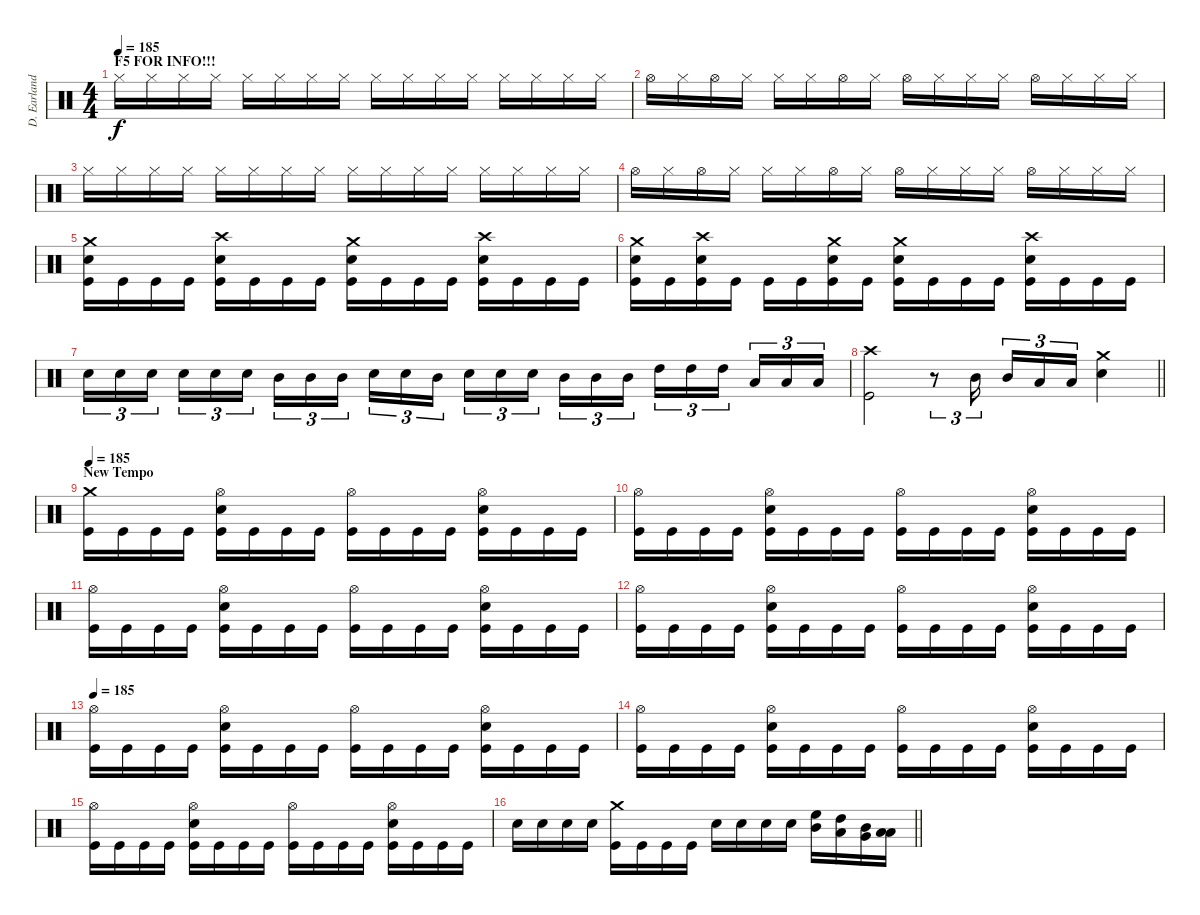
\track ("D. Earlanddson" "D. Earland") {instrument percussion}
\staff {score}
\articulation defaults
\ts (4 4)
\section ("" "F5 FOR INFO!!!")
\tempo 185
\tempo 145
\tempo 185
\clef neutral
\ks c "Hi-Hat (closed)".16{dy f} "Hi-Hat (closed)".16 "Hi-Hat (closed)".16 "Hi-Hat (closed)".16 "Hi-Hat (closed)".16 "Hi-Hat (closed)".16 "Hi-Hat (closed)".16 "Hi-Hat (closed)".16 "Hi-Hat (closed)".16 "Hi-Hat (closed)".16 "Hi-Hat (closed)".16 "Hi-Hat (closed)".16 "Hi-Hat (closed)".16 "Hi-Hat (closed)".16 "Hi-Hat (closed)".16 "Hi-Hat (closed)".16
|
"Hi-Hat (open)".16 "Hi-Hat (closed)".16 "Hi-Hat (open)".16 "Hi-Hat (closed)".16 "Hi-Hat (closed)".16 "Hi-Hat (closed)".16 "Hi-Hat (open)".16 "Hi-Hat (closed)".16 "Hi-Hat (open)".16 "Hi-Hat (closed)".16 "Hi-Hat (closed)".16 "Hi-Hat (closed)".16 "Hi-Hat (open)".16 "Hi-Hat (closed)".16 "Hi-Hat (closed)".16 "Hi-Hat (closed)".16 |
"Hi-Hat (closed)".16 "Hi-Hat (closed)".16 "Hi-Hat (closed)".16 "Hi-Hat (closed)".16 "Hi-Hat (closed)".16 "Hi-Hat (closed)".16 "Hi-Hat (closed)".16 "Hi-Hat (closed)".16 "Hi-Hat (closed)".16 "Hi-Hat (closed)".16 "Hi-Hat (closed)".16 "Hi-Hat (closed)".16 "Hi-Hat (closed)".16 "Hi-Hat (closed)".16 "Hi-Hat (closed)".16 "Hi-Hat (closed)".16 |
"Hi-Hat (open)".16 "Hi-Hat (closed)".16 "Hi-Hat (open)".16 "Hi-Hat (closed)".16 "Hi-Hat (closed)".16 "Hi-Hat (closed)".16 "Hi-Hat (open)".16 "Hi-Hat (closed)".16 "Hi-Hat (open)".16 "Hi-Hat (closed)".16 "Hi-Hat (closed)".16 "Hi-Hat (closed)".16 "Hi-Hat (open)".16 "Hi-Hat (closed)".16 "Hi-Hat (closed)".16 "Hi-Hat (closed)".16 |
("Crash medium (hit)" "Electric Snare (hit)" "Kick (hit)").16 "Kick (hit)".16 "Kick (hit)".16 "Kick (hit)".16 ("Crash high (hit)" "Electric Snare (hit)" "Kick (hit)").16 "Kick (hit)".16 "Kick (hit)".16 "Kick (hit)".16 ("Crash medium (hit)" "Electric Snare (hit)" "Kick (hit)").16 "Kick (hit)".16 "Kick (hit)".16 "Kick (hit)".16 ("Crash high (hit)" "Electric Snare (hit)" "Kick (hit)").16 "Kick (hit)".16 "Kick (hit)".16 "Kick (hit)".16 |
("Crash medium (hit)" "Electric Snare (hit)" "Kick (hit)").16 "Kick (hit)".16 ("Crash high (hit)" "Electric Snare (hit)" "Kick (hit)").16 "Kick (hit)".16 "Kick (hit)".16 "Kick (hit)".16 ("Crash medium (hit)" "Electric Snare (hit)" "Kick (hit)").16 "Kick (hit)".16 ("Crash medium (hit)" "Electric Snare (hit)" "Kick (hit)").16 "Kick (hit)".16 "Kick (hit)".16 "Kick (hit)".16 ("Crash high (hit)" "Electric Snare (hit)" "Kick (hit)").16 "Kick (hit)".16 "Kick (hit)".16 "Kick (hit)".16 |
"Electric Snare (hit)".16{tu (3 2)} "Electric Snare (hit)".16{tu (3 2)} "Electric Snare (hit)".16{tu (3 2)} "Electric Snare (hit)".16{tu (3 2)} "Electric Snare (hit)".16{tu (3 2)} "Electric Snare (hit)".16{tu (3 2)} "Mid Tom (hit)".16{tu (3 2)} "Mid Tom (hit)".16{tu (3 2)} "Mid Tom (hit)".16{tu (3 2)} "Electric Snare (hit)".16{tu (3 2)} "Electric Snare (hit)".16{tu (3 2)} "Mid Tom (hit)".16{tu (3 2)} "Electric Snare (hit)".16{tu (3 2)} "Electric Snare (hit)".16{tu (3 2)} "Electric Snare (hit)".16{tu (3 2)} "Mid Tom (hit)".16{tu (3 2)} "Mid Tom (hit)".16{tu (3 2)} "Mid Tom (hit)".16{tu (3 2)} "High Tom (hit)".16{tu (3 2)} "High Tom (hit)".16{tu (3 2)} "High Tom (hit)".16{tu (3 2)} "Low Tom (hit)".16{tu (3 2)} "Low Tom (hit)".16{tu (3 2)} "Low Tom (hit)".16{tu (3 2)} |
\barLineRight lightlight
("Crash high (hit)" "Kick (hit)").2 r.8{tu (3 2)} "Mid Tom (hit)".16{tu (3 2)} "Mid Tom (hit)".16{tu (3 2)} "Low Tom (hit)".16{tu (3 2)} "Low Tom (hit)".16{tu (3 2)} ("Crash medium (hit)" "Electric Snare (hit)").4 |
\section ("" "New Tempo")
\tempo 185
("Crash medium (hit)" "Kick (hit)").16 "Kick (hit)".16 "Kick (hit)".16 "Kick (hit)".16 ("Hi-Hat (open)" "Electric Snare (hit)" "Kick (hit)").16 "Kick (hit)".16 "Kick (hit)".16 "Kick (hit)".16 ("Hi-Hat (open)" "Kick (hit)").16 "Kick (hit)".16 "Kick (hit)".16 "Kick (hit)".16 ("Hi-Hat (open)" "Electric Snare (hit)" "Kick (hit)").16 "Kick (hit)".16 "Kick (hit)".16 "Kick (hit)".16 |
("Hi-Hat (open)" "Kick (hit)").16 "Kick (hit)".16 "Kick (hit)".16 "Kick (hit)".16 ("Hi-Hat (open)" "Electric Snare (hit)" "Kick (hit)").16 "Kick (hit)".16 "Kick (hit)".16 "Kick (hit)".16 ("Hi-Hat (open)" "Kick (hit)").16 "Kick (hit)".16 "Kick (hit)".16 "Kick (hit)".16 ("Hi-Hat (open)" "Electric Snare (hit)" "Kick (hit)").16 "Kick (hit)".16 "Kick (hit)".16 "Kick (hit)".16 |
("Hi-Hat (open)" "Kick (hit)").16 "Kick (hit)".16 "Kick (hit)".16 "Kick (hit)".16 ("Hi-Hat (open)" "Electric Snare (hit)" "Kick (hit)").16 "Kick (hit)".16 "Kick (hit)".16 "Kick (hit)".16 ("Hi-Hat (open)" "Kick (hit)").16 "Kick (hit)".16 "Kick (hit)".16 "Kick (hit)".16 ("Hi-Hat (open)" "Electric Snare (hit)" "Kick (hit)").16 "Kick (hit)".16 "Kick (hit)".16 "Kick (hit)".16 |
("Hi-Hat (open)" "Kick (hit)").16 "Kick (hit)".16 "Kick (hit)".16 "Kick (hit)".16 ("Hi-Hat (open)" "Electric Snare (hit)" "Kick (hit)").16 "Kick (hit)".16 "Kick (hit)".16 "Kick (hit)".16 ("Hi-Hat (open)" "Kick (hit)").16 "Kick (hit)".16 "Kick (hit)".16 "Kick (hit)".16 ("Hi-Hat (open)" "Electric Snare (hit)" "Kick (hit)").16 "Kick (hit)".16 "Kick (hit)".16 "Kick (hit)".16 |
\tempo 185
("Hi-Hat (open)" "Kick (hit)").16 "Kick (hit)".16 "Kick (hit)".16 "Kick (hit)".16 ("Hi-Hat (open)" "Electric Snare (hit)" "Kick (hit)").16 "Kick (hit)".16 "Kick (hit)".16 "Kick (hit)".16 ("Hi-Hat (open)" "Kick (hit)").16 "Kick (hit)".16 "Kick (hit)".16 "Kick (hit)".16 ("Hi-Hat (open)" "Electric Snare (hit)" "Kick (hit)").16 "Kick (hit)".16 "Kick (hit)".16 "Kick (hit)".16 |
("Hi-Hat (open)" "Kick (hit)").16 "Kick (hit)".16 "Kick (hit)".16 "Kick (hit)".16 ("Hi-Hat (open)" "Electric Snare (hit)" "Kick (hit)").16 "Kick (hit)".16 "Kick (hit)".16 "Kick (hit)".16 ("Hi-Hat (open)" "Kick (hit)").16 "Kick (hit)".16 "Kick (hit)".16 "Kick (hit)".16 ("Hi-Hat (open)" "Electric Snare (hit)" "Kick (hit)").16 "Kick (hit)".16 "Kick (hit)".16 "Kick (hit)".16 |
("Hi-Hat (open)" "Kick (hit)").16 "Kick (hit)".16 "Kick (hit)".16 "Kick (hit)".16 ("Hi-Hat (open)" "Electric Snare (hit)" "Kick (hit)").16 "Kick (hit)".16 "Kick (hit)".16 "Kick (hit)".16 ("Hi-Hat (open)" "Kick (hit)").16 "Kick (hit)".16 "Kick (hit)".16 "Kick (hit)".16 ("Hi-Hat (open)" "Electric Snare (hit)" "Kick (hit)").16 "Kick (hit)".16 "Kick (hit)".16 "Kick (hit)".16 |
\barLineRight lightlight "Electric Snare (hit)".16 "Electric Snare (hit)".16 "Electric Snare (hit)".16 "Electric Snare (hit)".16
("Crash medium (hit)" "Kick (hit)").16 "Kick (hit)".16 "Kick (hit)".16 "Kick (hit)".16 "Electric Snare (hit)".16 "Electric Snare (hit)".16 "Electric Snare (hit)".16 "Electric Snare (hit)".16 ("High Floor Tom (hit)" "Mid Tom (hit)").16 ("High Tom (hit)" "Low Tom (hit)").16 ("Mid Tom (hit)" "Very Low Tom (hit)").16 ("Low Tom (hit)" "Low Floor Tom (hit)").16
